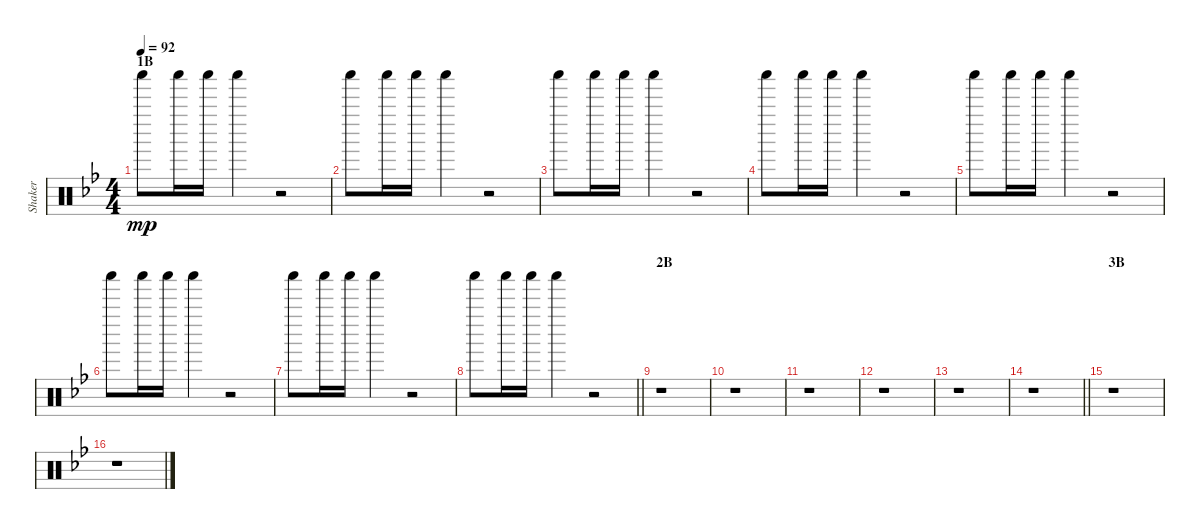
\track ("Shaker" "Shaker") {instrument percussion}
\staff {score}
\articulation defaults
\ts (4 4)
\section ("" "1B")
\tempo 92
\clef neutral
\ks bb "Shaker (hit)".8{dy mp} "Shaker (hit)".16 "Shaker (hit)".16 "Shaker (hit)".4
r.2 |
"Shaker (hit)".8 "Shaker (hit)".16 "Shaker (hit)".16 "Shaker (hit)".4 r.2 |
"Shaker (hit)".8 "Shaker (hit)".16 "Shaker (hit)".16 "Shaker (hit)".4 r.2 |
"Shaker (hit)".8 "Shaker (hit)".16 "Shaker (hit)".16 "Shaker (hit)".4 r.2 |
"Shaker (hit)".8 "Shaker (hit)".16 "Shaker (hit)".16 "Shaker (hit)".4 r.2 |
"Shaker (hit)".8 "Shaker (hit)".16 "Shaker (hit)".16 "Shaker (hit)".4 r.2 |
"Shaker (hit)".8 "Shaker (hit)".16 "Shaker (hit)".16 "Shaker (hit)".4 r.2 |
\barLineRight lightlight "Shaker (hit)".8 "Shaker (hit)".16 "Shaker (hit)".16 "Shaker (hit)".4
r.2 |
\section ("" "2B")
r.1 |
r.1 |
r.1 |
r.1 |
r.1 |
\barLineRight lightlight
r.1 |
\section ("" "3B")
r.1 |
r.1
